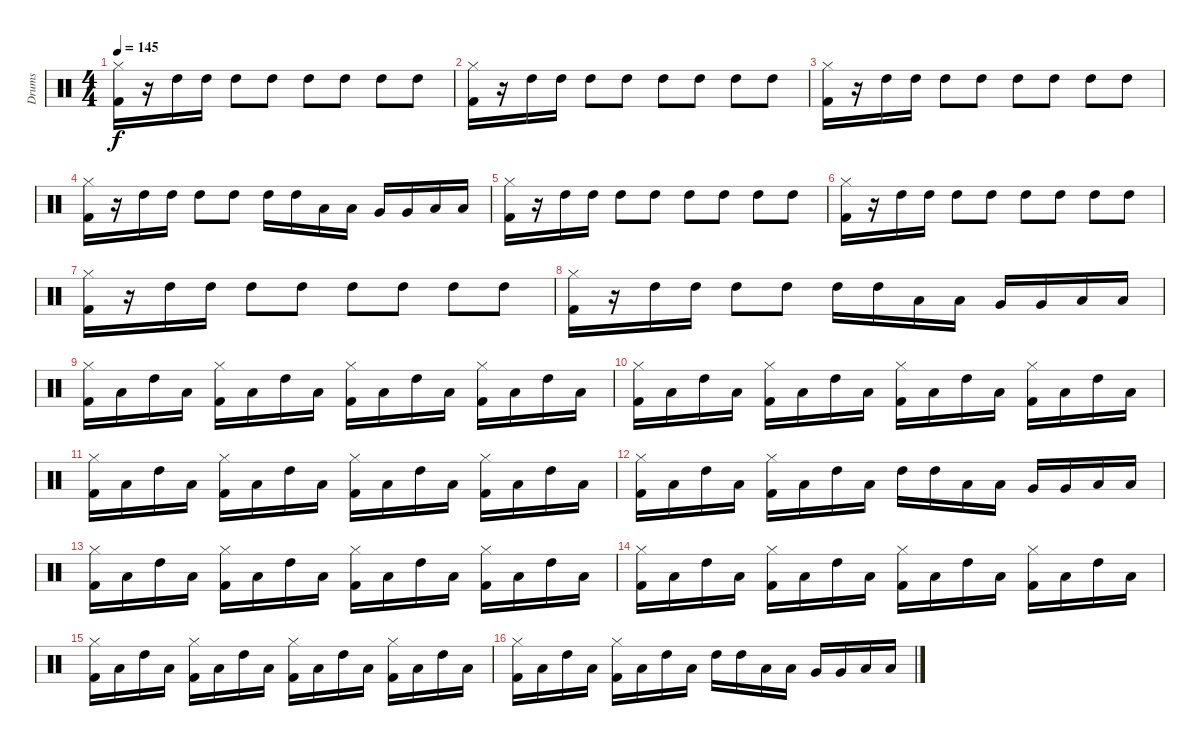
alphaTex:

\track ("Drums" "Drums") {instrument percussion}
\staff {score}
\articulation defaults
\ts (4 4)
\tempo 145
\clef neutral
\ks c
("Hi-Hat (closed)" "Kick (hit) 2").16{dy f} r.16 "High Tom (hit)".16 "High Tom (hit)".16 "High Tom (hit)".8 "High Tom (hit)".8 "High Tom (hit)".8 "High Tom (hit)".8 "High Tom (hit)".8 "High Tom (hit)".8 |
("Hi-Hat (closed)" "Kick (hit) 2").16 r.16 "High Tom (hit)".16 "High Tom (hit)".16 "High Tom (hit)".8 "High Tom (hit)".8 "High Tom (hit)".8 "High Tom (hit)".8 "High Tom (hit)".8 "High Tom (hit)".8 |
("Hi-Hat (closed)" "Kick (hit) 2").16 r.16 "High Tom (hit)".16 "High Tom (hit)".16 "High Tom (hit)".8 "High Tom (hit)".8 "High Tom (hit)".8 "High Tom (hit)".8 "High Tom (hit)".8 "High Tom (hit)".8 |
("Hi-Hat (closed)" "Kick (hit) 2").16 r.16 "High Tom (hit)".16 "High Tom (hit)".16 "High Tom (hit)".8 "High Tom (hit)".8 "High Tom (hit)".16 "High Tom (hit)".16 "Low Tom (hit)".16 "Low Tom (hit)".16 "Very Low Tom (hit)".16 "Very Low Tom (hit)".16 "Low Floor Tom (hit)".16 "Low Floor Tom (hit)".16 |
("Hi-Hat (closed)" "Kick (hit) 2").16 r.16 "High Tom (hit)".16 "High Tom (hit)".16 "High Tom (hit)".8 "High Tom (hit)".8 "High Tom (hit)".8 "High Tom (hit)".8 "High Tom (hit)".8 "High Tom (hit)".8 |
("Hi-Hat (closed)" "Kick (hit) 2").16 r.16 "High Tom (hit)".16 "High Tom (hit)".16 "High Tom (hit)".8 "High Tom (hit)".8 "High Tom (hit)".8 "High Tom (hit)".8 "High Tom (hit)".8 "High Tom (hit)".8 |
("Hi-Hat (closed)" "Kick (hit) 2").16 r.16 "High Tom (hit)".16 "High Tom (hit)".16 "High Tom (hit)".8 "High Tom (hit)".8 "High Tom (hit)".8 "High Tom (hit)".8 "High Tom (hit)".8 "High Tom (hit)".8 |
("Hi-Hat (closed)" "Kick (hit) 2").16 r.16 "High Tom (hit)".16 "High Tom (hit)".16 "High Tom (hit)".8 "High Tom (hit)".8 "High Tom (hit)".16 "High Tom (hit)".16 "Low Tom (hit)".16 "Low Tom (hit)".16 "Very Low Tom (hit)".16 "Very Low Tom (hit)".16 "Low Floor Tom (hit)".16 "Low Floor Tom (hit)".16 |
("Hi-Hat (closed)" "Kick (hit) 2").16 "Low Tom (hit)".16 "High Tom (hit)".16 "Low Tom (hit)".16 ("Hi-Hat (closed)" "Kick (hit) 2").16 "Low Tom (hit)".16 "High Tom (hit)".16 "Low Tom (hit)".16 ("Hi-Hat (closed)" "Kick (hit) 2").16 "Low Tom (hit)".16 "High Tom (hit)".16 "Low Tom (hit)".16 ("Hi-Hat (closed)" "Kick (hit) 2").16 "Low Tom (hit)".16 "High Tom (hit)".16 "Low Tom (hit)".16 |
("Hi-Hat (closed)" "Kick (hit) 2").16 "Low Tom (hit)".16 "High Tom (hit)".16 "Low Tom (hit)".16 ("Hi-Hat (closed)" "Kick (hit) 2").16 "Low Tom (hit)".16 "High Tom (hit)".16 "Low Tom (hit)".16 ("Hi-Hat (closed)" "Kick (hit) 2").16 "Low Tom (hit)".16 "High Tom (hit)".16 "Low Tom (hit)".16 ("Hi-Hat (closed)" "Kick (hit) 2").16 "Low Tom (hit)".16 "High Tom (hit)".16 "Low Tom (hit)".16 |
("Hi-Hat (closed)" "Kick (hit) 2").16 "Low Tom (hit)".16 "High Tom (hit)".16 "Low Tom (hit)".16 ("Hi-Hat (closed)" "Kick (hit) 2").16 "Low Tom (hit)".16 "High Tom (hit)".16 "Low Tom (hit)".16 ("Hi-Hat (closed)" "Kick (hit) 2").16 "Low Tom (hit)".16 "High Tom (hit)".16 "Low Tom (hit)".16 ("Hi-Hat (closed)" "Kick (hit) 2").16 "Low Tom (hit)".16 "High Tom (hit)".16 "Low Tom (hit)".16 |
("Hi-Hat (closed)" "Kick (hit) 2").16 "Low Tom (hit)".16 "High Tom (hit)".16 "Low Tom (hit)".16 ("Hi-Hat (closed)" "Kick (hit) 2").16 "Low Tom (hit)".16 "High Tom (hit)".16 "Low Tom (hit)".16 "High Tom (hit)".16 "High Tom (hit)".16 "Low Tom (hit)".16 "Low Tom (hit)".16 "Very Low Tom (hit)".16 "Very Low Tom (hit)".16 "Low Floor Tom (hit)".16 "Low Floor Tom (hit)".16 |
("Hi-Hat (closed)" "Kick (hit) 2").16 "Low Tom (hit)".16 "High Tom (hit)".16 "Low Tom (hit)".16 ("Hi-Hat (closed)" "Kick (hit) 2").16 "Low Tom (hit)".16 "High Tom (hit)".16 "Low Tom (hit)".16 ("Hi-Hat (closed)" "Kick (hit) 2").16 "Low Tom (hit)".16 "High Tom (hit)".16 "Low Tom (hit)".16 ("Hi-Hat (closed)" "Kick (hit) 2").16 "Low Tom (hit)".16 "High Tom (hit)".16 "Low Tom (hit)".16 |
("Hi-Hat (closed)" "Kick (hit) 2").16 "Low Tom (hit)".16 "High Tom (hit)".16 "Low Tom (hit)".16 ("Hi-Hat (closed)" "Kick (hit) 2").16 "Low Tom (hit)".16 "High Tom (hit)".16 "Low Tom (hit)".16 ("Hi-Hat (closed)" "Kick (hit) 2").16 "Low Tom (hit)".16 "High Tom (hit)".16 "Low Tom (hit)".16 ("Hi-Hat (closed)" "Kick (hit) 2").16 "Low Tom (hit)".16 "High Tom (hit)".16 "Low Tom (hit)".16 |
("Hi-Hat (closed)" "Kick (hit) 2").16 "Low Tom (hit)".16 "High Tom (hit)".16 "Low Tom (hit)".16 ("Hi-Hat (closed)" "Kick (hit) 2").16 "Low Tom (hit)".16 "High Tom (hit)".16 "Low Tom (hit)".16 ("Hi-Hat (closed)" "Kick (hit) 2").16 "Low Tom (hit)".16 "High Tom (hit)".16 "Low Tom (hit)".16 ("Hi-Hat (closed)" "Kick (hit) 2").16 "Low Tom (hit)".16 "High Tom (hit)".16 "Low Tom (hit)".16 |
("Hi-Hat (closed)" "Kick (hit) 2").16 "Low Tom (hit)".16 "High Tom (hit)".16 "Low Tom (hit)".16 ("Hi-Hat (closed)" "Kick (hit) 2").16 "Low Tom (hit)".16 "High Tom (hit)".16 "Low Tom (hit)".16 "High Tom (hit)".16 "High Tom (hit)".16 "Low Tom (hit)".16 "Low Tom (hit)".16 "Very Low Tom (hit)".16 "Very Low Tom (hit)".16 "Low Floor Tom (hit)".16 "Low Floor Tom (hit)".16
